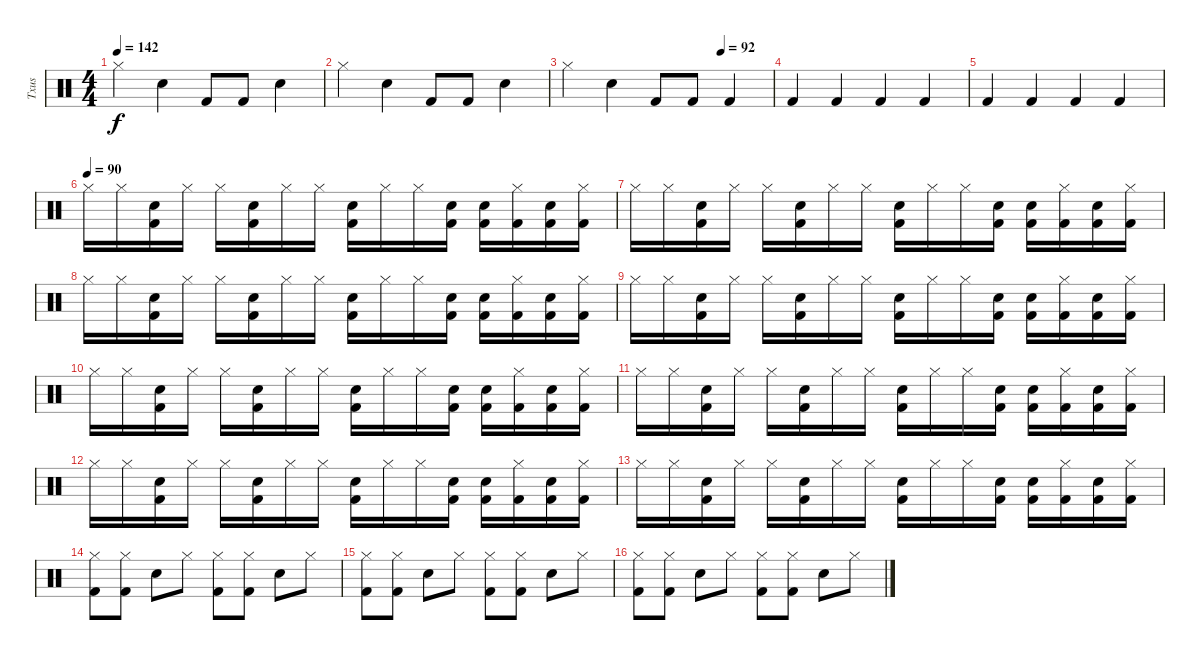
\track ("Txus" "Txus") {instrument percussion}
\staff {score}
\articulation defaults
\ts (4 4)
\tempo 142
\clef neutral
\ks c "Hi-Hat (closed)".4{dy f} "Snare (hit) 2".4 "Kick (hit) 2".8 "Kick (hit) 2".8 "Snare (hit) 2".4
|
"Hi-Hat (closed)".4 "Snare (hit) 2".4 "Kick (hit) 2".8 "Kick (hit) 2".8 "Snare (hit) 2".4 |
\tempo (92 0.75)
"Hi-Hat (closed)".4 "Snare (hit) 2".4 "Kick (hit) 2".8 "Kick (hit) 2".8 "Kick (hit) 2".4 |
"Kick (hit) 2".4 "Kick (hit) 2".4 "Kick (hit) 2".4 "Kick (hit) 2".4 |
"Kick (hit) 2".4 "Kick (hit) 2".4 "Kick (hit) 2".4 "Kick (hit) 2".4 |
\tempo (90)
"Hi-Hat (closed)".16 "Hi-Hat (closed)".16 ("Snare (hit) 2" "Kick (hit) 2").16 "Hi-Hat (closed)".16 "Hi-Hat (closed)".16 ("Snare (hit) 2" "Kick (hit) 2").16 "Hi-Hat (closed)".16 "Hi-Hat (closed)".16 ("Snare (hit) 2" "Kick (hit) 2").16 "Hi-Hat (closed)".16 "Hi-Hat (closed)".16 ("Snare (hit) 2" "Kick (hit) 2").16 ("Snare (hit) 2" "Kick (hit) 2").16 ("Hi-Hat (closed)" "Kick (hit) 2").16 ("Snare (hit) 2" "Kick (hit) 2").16 ("Hi-Hat (closed)" "Kick (hit) 2").16 |
"Hi-Hat (closed)".16 "Hi-Hat (closed)".16 ("Snare (hit) 2" "Kick (hit) 2").16 "Hi-Hat (closed)".16 "Hi-Hat (closed)".16 ("Snare (hit) 2" "Kick (hit) 2").16 "Hi-Hat (closed)".16 "Hi-Hat (closed)".16 ("Snare (hit) 2" "Kick (hit) 2").16 "Hi-Hat (closed)".16 "Hi-Hat (closed)".16 ("Snare (hit) 2" "Kick (hit) 2").16 ("Snare (hit) 2" "Kick (hit) 2").16 ("Hi-Hat (closed)" "Kick (hit) 2").16 ("Snare (hit) 2" "Kick (hit) 2").16 ("Hi-Hat (closed)" "Kick (hit) 2").16 |
"Hi-Hat (closed)".16 "Hi-Hat (closed)".16 ("Snare (hit) 2" "Kick (hit) 2").16 "Hi-Hat (closed)".16 "Hi-Hat (closed)".16 ("Snare (hit) 2" "Kick (hit) 2").16 "Hi-Hat (closed)".16 "Hi-Hat (closed)".16 ("Snare (hit) 2" "Kick (hit) 2").16 "Hi-Hat (closed)".16 "Hi-Hat (closed)".16 ("Snare (hit) 2" "Kick (hit) 2").16 ("Snare (hit) 2" "Kick (hit) 2").16 ("Hi-Hat (closed)" "Kick (hit) 2").16 ("Snare (hit) 2" "Kick (hit) 2").16 ("Hi-Hat (closed)" "Kick (hit) 2").16 |
"Hi-Hat (closed)".16 "Hi-Hat (closed)".16 ("Snare (hit) 2" "Kick (hit) 2").16 "Hi-Hat (closed)".16 "Hi-Hat (closed)".16 ("Snare (hit) 2" "Kick (hit) 2").16 "Hi-Hat (closed)".16 "Hi-Hat (closed)".16 ("Snare (hit) 2" "Kick (hit) 2").16 "Hi-Hat (closed)".16 "Hi-Hat (closed)".16 ("Snare (hit) 2" "Kick (hit) 2").16 ("Snare (hit) 2" "Kick (hit) 2").16 ("Hi-Hat (closed)" "Kick (hit) 2").16 ("Snare (hit) 2" "Kick (hit) 2").16 ("Hi-Hat (closed)" "Kick (hit) 2").16 |
"Hi-Hat (closed)".16 "Hi-Hat (closed)".16 ("Snare (hit) 2" "Kick (hit) 2").16 "Hi-Hat (closed)".16 "Hi-Hat (closed)".16 ("Snare (hit) 2" "Kick (hit) 2").16 "Hi-Hat (closed)".16 "Hi-Hat (closed)".16 ("Snare (hit) 2" "Kick (hit) 2").16 "Hi-Hat (closed)".16 "Hi-Hat (closed)".16 ("Snare (hit) 2" "Kick (hit) 2").16 ("Snare (hit) 2" "Kick (hit) 2").16 ("Hi-Hat (closed)" "Kick (hit) 2").16 ("Snare (hit) 2" "Kick (hit) 2").16 ("Hi-Hat (closed)" "Kick (hit) 2").16 |
"Hi-Hat (closed)".16 "Hi-Hat (closed)".16 ("Snare (hit) 2" "Kick (hit) 2").16 "Hi-Hat (closed)".16 "Hi-Hat (closed)".16 ("Snare (hit) 2" "Kick (hit) 2").16 "Hi-Hat (closed)".16 "Hi-Hat (closed)".16 ("Snare (hit) 2" "Kick (hit) 2").16 "Hi-Hat (closed)".16 "Hi-Hat (closed)".16 ("Snare (hit) 2" "Kick (hit) 2").16 ("Snare (hit) 2" "Kick (hit) 2").16 ("Hi-Hat (closed)" "Kick (hit) 2").16 ("Snare (hit) 2" "Kick (hit) 2").16 ("Hi-Hat (closed)" "Kick (hit) 2").16 |
"Hi-Hat (closed)".16 "Hi-Hat (closed)".16 ("Snare (hit) 2" "Kick (hit) 2").16 "Hi-Hat (closed)".16 "Hi-Hat (closed)".16 ("Snare (hit) 2" "Kick (hit) 2").16 "Hi-Hat (closed)".16 "Hi-Hat (closed)".16 ("Snare (hit) 2" "Kick (hit) 2").16 "Hi-Hat (closed)".16 "Hi-Hat (closed)".16 ("Snare (hit) 2" "Kick (hit) 2").16 ("Snare (hit) 2" "Kick (hit) 2").16 ("Hi-Hat (closed)" "Kick (hit) 2").16 ("Snare (hit) 2" "Kick (hit) 2").16 ("Hi-Hat (closed)" "Kick (hit) 2").16 |
"Hi-Hat (closed)".16 "Hi-Hat (closed)".16 ("Snare (hit) 2" "Kick (hit) 2").16 "Hi-Hat (closed)".16 "Hi-Hat (closed)".16 ("Snare (hit) 2" "Kick (hit) 2").16 "Hi-Hat (closed)".16 "Hi-Hat (closed)".16 ("Snare (hit) 2" "Kick (hit) 2").16 "Hi-Hat (closed)".16 "Hi-Hat (closed)".16 ("Snare (hit) 2" "Kick (hit) 2").16 ("Snare (hit) 2" "Kick (hit) 2").16 ("Hi-Hat (closed)" "Kick (hit) 2").16 ("Snare (hit) 2" "Kick (hit) 2").16 ("Hi-Hat (closed)" "Kick (hit) 2").16 |
("Hi-Hat (closed)" "Kick (hit) 2").8 ("Hi-Hat (closed)" "Kick (hit) 2").8 "Electric Snare (hit)".8 "Hi-Hat (closed)".8 ("Hi-Hat (closed)" "Kick (hit) 2").8 ("Hi-Hat (closed)" "Kick (hit) 2").8 "Electric Snare (hit)".8 "Hi-Hat (closed)".8 |
("Hi-Hat (closed)" "Kick (hit) 2").8 ("Hi-Hat (closed)" "Kick (hit) 2").8 "Electric Snare (hit)".8 "Hi-Hat (closed)".8 ("Hi-Hat (closed)" "Kick (hit) 2").8 ("Hi-Hat (closed)" "Kick (hit) 2").8 "Electric Snare (hit)".8 "Hi-Hat (closed)".8 |
("Hi-Hat (closed)" "Kick (hit) 2").8 ("Hi-Hat (closed)" "Kick (hit) 2").8 "Electric Snare (hit)".8 "Hi-Hat (closed)".8 ("Hi-Hat (closed)" "Kick (hit) 2").8 ("Hi-Hat (closed)" "Kick (hit) 2").8 "Electric Snare (hit)".8 "Hi-Hat (closed)".8
